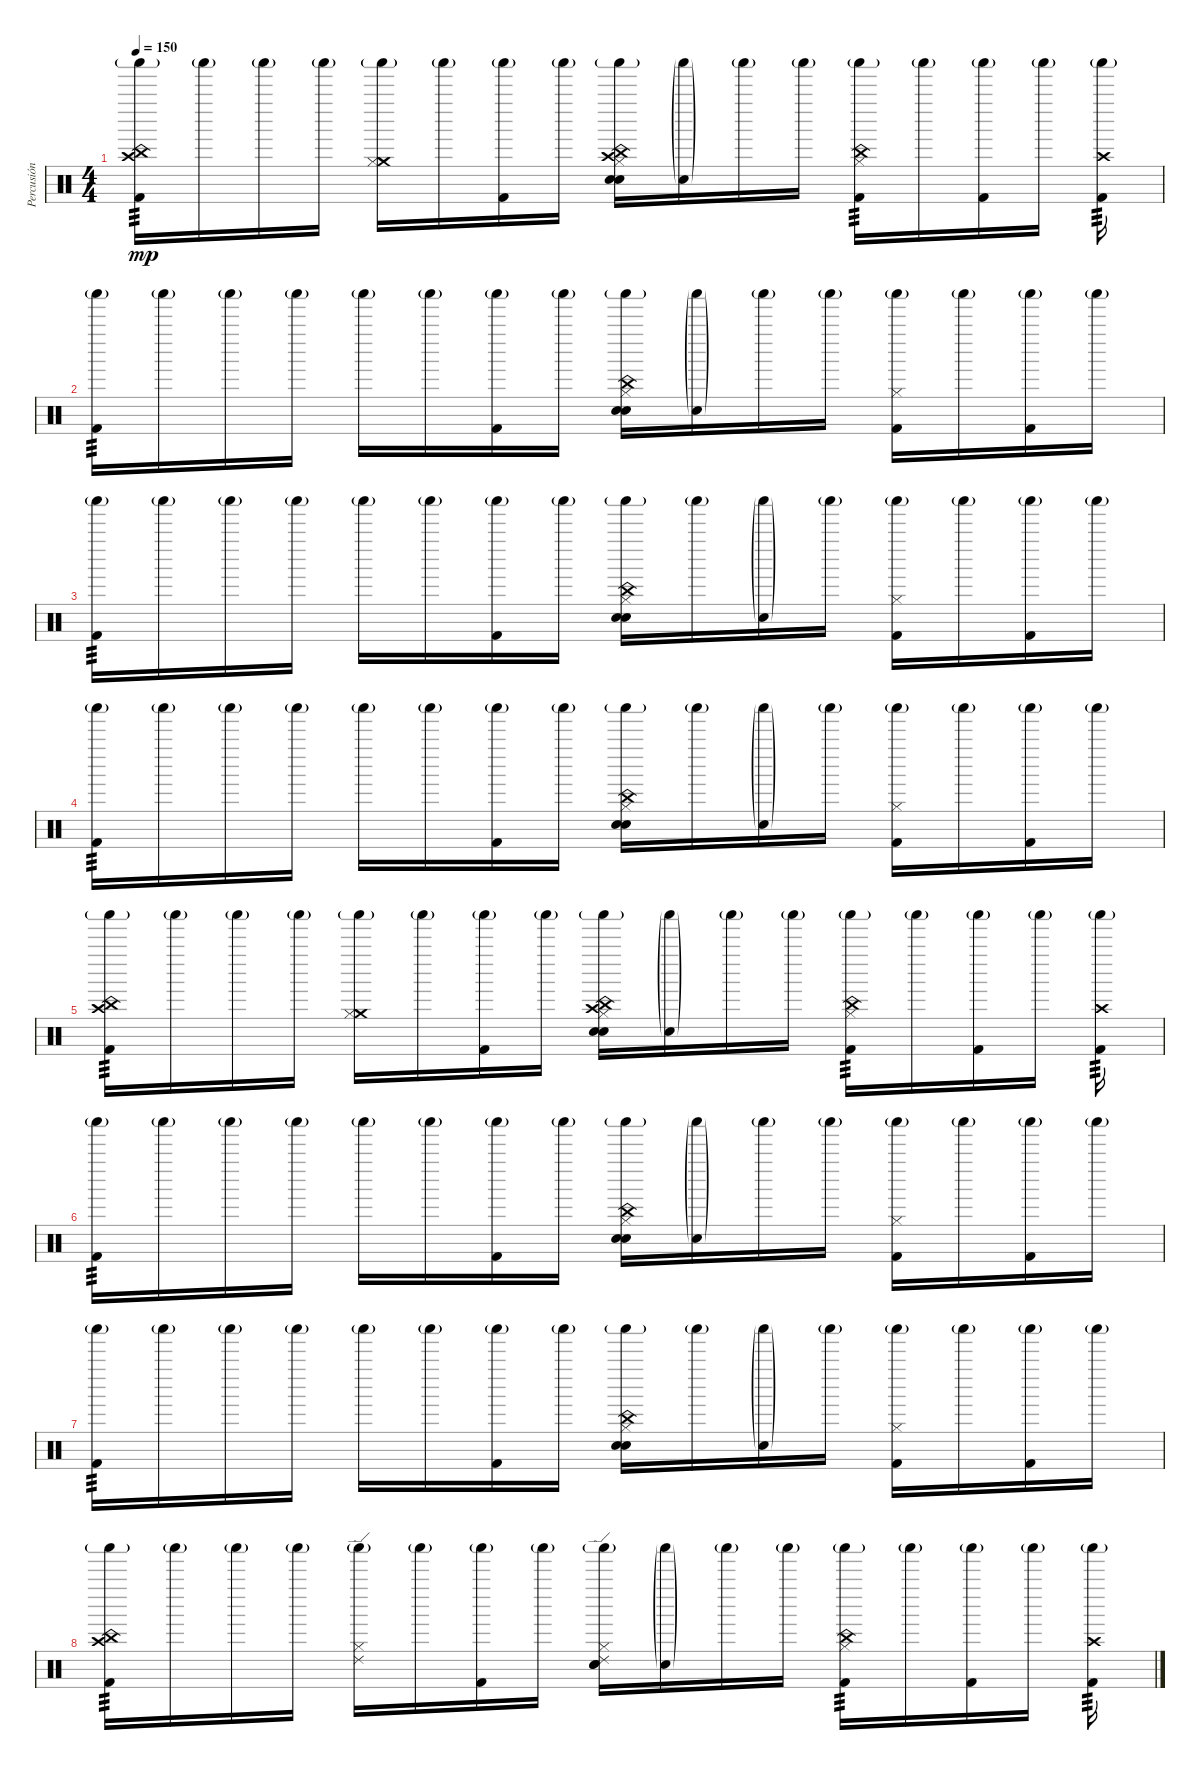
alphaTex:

\track ("Percusión" "Percusión") {instrument percussion}
\staff {score}
\articulation defaults
\ts (4 4)
\tempo 150
\clef neutral
\ks c
("China (hit)" "Crash high (hit)" "Shaker (hit)"{g} "Kick (hit) 2").16{tp 3 dy mp} "Shaker (hit)"{g}.16 "Shaker (hit)"{g}.16 "Shaker (hit)"{g}.16 ("Crash medium (hit)" "Hi-Hat (closed)" "Shaker (hit)"{g}).16 "Shaker (hit)"{g}.16 ("Shaker (hit)"{g} "Kick (hit) 2").16 "Shaker (hit)"{g}.16 ("Crash high (hit)" "China (hit)" "Hand Clap (hit)" "Hi-Hat (closed)" "Shaker (hit)"{g} "Electric Snare (hit)").16 ("Hand Clap (hit)"{g} "Shaker (hit)"{g}).16 "Shaker (hit)"{g}.16 "Shaker (hit)"{g}.16 ("China (hit)" "Hi-Hat (closed)" "Shaker (hit)"{g} "Kick (hit) 2").16{tp 3} "Shaker (hit)"{g}.16 ("Shaker (hit)"{g} "Kick (hit) 2").16 "Shaker (hit)"{g}.16 ("Crash high (hit)" "Shaker (hit)"{g} "Kick (hit) 2").16{tp 3} |
("Shaker (hit)"{g} "Kick (hit) 2").16{tp 3} "Shaker (hit)"{g}.16 "Shaker (hit)"{g}.16 "Shaker (hit)"{g}.16 "Shaker (hit)"{g}.16 "Shaker (hit)"{g}.16 ("Shaker (hit)"{g} "Kick (hit) 2").16 "Shaker (hit)"{g}.16 ("China (hit)" "Hand Clap (hit)" "Hi-Hat (closed)" "Shaker (hit)"{g} "Electric Snare (hit)").16 ("Hand Clap (hit)"{g} "Shaker (hit)"{g}).16 "Shaker (hit)"{g}.16 "Shaker (hit)"{g}.16 ("Hi-Hat (closed)" "Shaker (hit)"{g} "Kick (hit) 2").16 "Shaker (hit)"{g}.16 ("Shaker (hit)"{g} "Kick (hit) 2").16 "Shaker (hit)"{g}.16 |
("Shaker (hit)"{g} "Kick (hit) 2").16{tp 3} "Shaker (hit)"{g}.16 "Shaker (hit)"{g}.16 "Shaker (hit)"{g}.16 "Shaker (hit)"{g}.16 "Shaker (hit)"{g}.16 ("Shaker (hit)"{g} "Kick (hit) 2").16 "Shaker (hit)"{g}.16 ("China (hit)" "Hand Clap (hit)" "Hi-Hat (closed)" "Shaker (hit)"{g} "Electric Snare (hit)").16 "Shaker (hit)"{g}.16 ("Hand Clap (hit)"{g} "Shaker (hit)"{g}).16 "Shaker (hit)"{g}.16 ("Hi-Hat (closed)" "Shaker (hit)"{g} "Kick (hit) 2").16 "Shaker (hit)"{g}.16 ("Shaker (hit)"{g} "Kick (hit) 2").16 "Shaker (hit)"{g}.16 |
("Shaker (hit)"{g} "Kick (hit) 2").16{tp 3} "Shaker (hit)"{g}.16 "Shaker (hit)"{g}.16 "Shaker (hit)"{g}.16 "Shaker (hit)"{g}.16 "Shaker (hit)"{g}.16 ("Shaker (hit)"{g} "Kick (hit) 2").16 "Shaker (hit)"{g}.16 ("China (hit)" "Hand Clap (hit)" "Hi-Hat (closed)" "Shaker (hit)"{g} "Electric Snare (hit)").16 "Shaker (hit)"{g}.16 ("Hand Clap (hit)"{g} "Shaker (hit)"{g}).16 "Shaker (hit)"{g}.16 ("Hi-Hat (closed)" "Shaker (hit)"{g} "Kick (hit) 2").16 "Shaker (hit)"{g}.16 ("Shaker (hit)"{g} "Kick (hit) 2").16 "Shaker (hit)"{g}.16 |
("China (hit)" "Crash high (hit)" "Shaker (hit)"{g} "Kick (hit) 2").16{tp 3} "Shaker (hit)"{g}.16 "Shaker (hit)"{g}.16 "Shaker (hit)"{g}.16 ("Crash medium (hit)" "Hi-Hat (closed)" "Shaker (hit)"{g}).16 "Shaker (hit)"{g}.16 ("Shaker (hit)"{g} "Kick (hit) 2").16 "Shaker (hit)"{g}.16 ("Crash high (hit)" "China (hit)" "Hand Clap (hit)" "Hi-Hat (closed)" "Shaker (hit)"{g} "Electric Snare (hit)").16 ("Hand Clap (hit)"{g} "Shaker (hit)"{g}).16 "Shaker (hit)"{g}.16 "Shaker (hit)"{g}.16 ("China (hit)" "Hi-Hat (closed)" "Shaker (hit)"{g} "Kick (hit) 2").16{tp 3} "Shaker (hit)"{g}.16 ("Shaker (hit)"{g} "Kick (hit) 2").16 "Shaker (hit)"{g}.16 ("Crash high (hit)" "Shaker (hit)"{g} "Kick (hit) 2").16{tp 3} |
("Shaker (hit)"{g} "Kick (hit) 2").16{tp 3} "Shaker (hit)"{g}.16 "Shaker (hit)"{g}.16 "Shaker (hit)"{g}.16 "Shaker (hit)"{g}.16 "Shaker (hit)"{g}.16 ("Shaker (hit)"{g} "Kick (hit) 2").16 "Shaker (hit)"{g}.16 ("China (hit)" "Hand Clap (hit)" "Hi-Hat (closed)" "Shaker (hit)"{g} "Electric Snare (hit)").16 ("Hand Clap (hit)"{g} "Shaker (hit)"{g}).16 "Shaker (hit)"{g}.16 "Shaker (hit)"{g}.16 ("Hi-Hat (closed)" "Shaker (hit)"{g} "Kick (hit) 2").16 "Shaker (hit)"{g}.16 ("Shaker (hit)"{g} "Kick (hit) 2").16 "Shaker (hit)"{g}.16 |
("Shaker (hit)"{g} "Kick (hit) 2").16{tp 3} "Shaker (hit)"{g}.16 "Shaker (hit)"{g}.16 "Shaker (hit)"{g}.16 "Shaker (hit)"{g}.16 "Shaker (hit)"{g}.16 ("Shaker (hit)"{g} "Kick (hit) 2").16 "Shaker (hit)"{g}.16 ("China (hit)" "Hand Clap (hit)" "Hi-Hat (closed)" "Shaker (hit)"{g} "Electric Snare (hit)").16 "Shaker (hit)"{g}.16 ("Hand Clap (hit)"{g} "Shaker (hit)"{g}).16 "Shaker (hit)"{g}.16 ("Hi-Hat (closed)" "Shaker (hit)"{g} "Kick (hit) 2").16 "Shaker (hit)"{g}.16 ("Shaker (hit)"{g} "Kick (hit) 2").16 "Shaker (hit)"{g}.16 |
("China (hit)" "Crash high (hit)" "Shaker (hit)"{g} "Kick (hit) 2").16{tp 3} "Shaker (hit)"{g}.16 "Shaker (hit)"{g}.16 "Shaker (hit)"{g}.16 ("Ride (edge) 2" "Hi-Hat (closed)" "Shaker (hit)"{g}).16 "Shaker (hit)"{g}.16 ("Shaker (hit)"{g} "Kick (hit) 2").16 "Shaker (hit)"{g}.16 ("Ride (edge) 2" "Hand Clap (hit)" "Hi-Hat (closed)" "Shaker (hit)"{g} "Electric Snare (hit)").16 ("Hand Clap (hit)"{g} "Shaker (hit)"{g}).16 "Shaker (hit)"{g}.16 "Shaker (hit)"{g}.16 ("China (hit)" "Hi-Hat (closed)" "Shaker (hit)"{g} "Kick (hit) 2").16{tp 3} "Shaker (hit)"{g}.16 ("Shaker (hit)"{g} "Kick (hit) 2").16 "Shaker (hit)"{g}.16 ("Crash high (hit)" "Shaker (hit)"{g} "Kick (hit) 2").16{tp 3}
